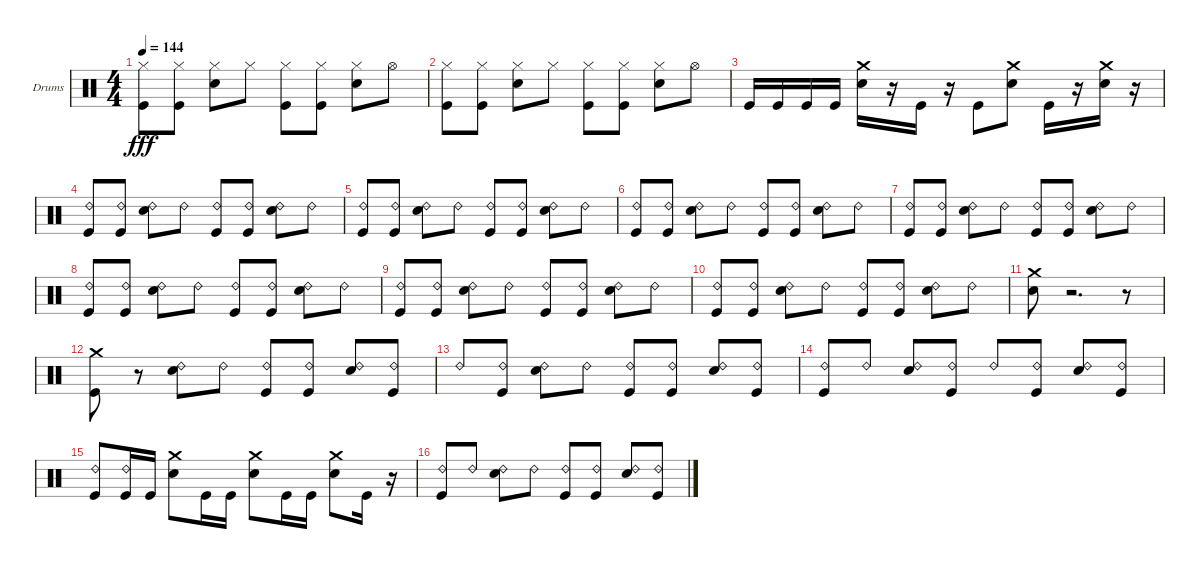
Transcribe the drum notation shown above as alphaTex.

\bracketExtendMode groupsimilarinstruments
\firstSystemTrackNameOrientation horizontal
\otherSystemsTrackNameOrientation horizontal
\track ("Drumkit" "Drums") {instrument percussion}
\staff {score}
\articulation defaults
\ts (4 4)
\tempo 144
\clef neutral
\ks c
("Kick (hit)" "Hi-Hat (closed)").8{dy fff} ("Kick (hit)" "Hi-Hat (closed)").8 ("Snare (hit) 2" "Hi-Hat (closed)").8 "Hi-Hat (closed)".8 ("Kick (hit)" "Hi-Hat (closed)").8 ("Kick (hit)" "Hi-Hat (closed)").8 ("Snare (hit) 2" "Hi-Hat (closed)").8 "Hi-Hat (open)".8 |
("Hi-Hat (closed)" "Kick (hit)").8 ("Kick (hit)" "Hi-Hat (closed)").8 ("Snare (hit) 2" "Hi-Hat (closed)").8 "Hi-Hat (closed)".8 ("Kick (hit)" "Hi-Hat (closed)").8 ("Kick (hit)" "Hi-Hat (closed)").8 ("Snare (hit) 2" "Hi-Hat (closed)").8 "Hi-Hat (open)".8 |
"Kick (hit)".16 "Kick (hit)".16 "Kick (hit)".16 "Kick (hit)".16 ("Snare (hit) 2" "Crash medium (hit)").16 r.16 "Kick (hit)".16 r.16 "Kick (hit)".8 ("Snare (hit) 2" "Crash medium (hit)").8 "Kick (hit)".16 r.16 ("Snare (hit) 2" "Crash medium (hit)").16 r.16 |
("Ride (bell) 2" "Kick (hit)").8 ("Kick (hit)" "Ride (bell) 2").8 ("Snare (hit) 2" "Ride (bell) 2").8 "Ride (bell) 2".8 ("Kick (hit)" "Ride (bell) 2").8 ("Kick (hit)" "Ride (bell) 2").8 ("Snare (hit) 2" "Ride (bell) 2").8 "Ride (bell) 2".8 |
("Ride (bell) 2" "Kick (hit)").8 ("Kick (hit)" "Ride (bell) 2").8 ("Snare (hit) 2" "Ride (bell) 2").8 "Ride (bell) 2".8 ("Kick (hit)" "Ride (bell) 2").8 ("Kick (hit)" "Ride (bell) 2").8 ("Snare (hit) 2" "Ride (bell) 2").8 "Ride (bell) 2".8 |
("Ride (bell) 2" "Kick (hit)").8 ("Kick (hit)" "Ride (bell) 2").8 ("Snare (hit) 2" "Ride (bell) 2").8 "Ride (bell) 2".8 ("Kick (hit)" "Ride (bell) 2").8 ("Kick (hit)" "Ride (bell) 2").8 ("Snare (hit) 2" "Ride (bell) 2").8 "Ride (bell) 2".8 |
("Ride (bell) 2" "Kick (hit)").8 ("Kick (hit)" "Ride (bell) 2").8 ("Snare (hit) 2" "Ride (bell) 2").8 "Ride (bell) 2".8 ("Kick (hit)" "Ride (bell) 2").8 ("Kick (hit)" "Ride (bell) 2").8 ("Snare (hit) 2" "Ride (bell) 2").8 "Ride (bell) 2".8 |
("Ride (bell) 2" "Kick (hit)").8 ("Kick (hit)" "Ride (bell) 2").8 ("Snare (hit) 2" "Ride (bell) 2").8 "Ride (bell) 2".8 ("Kick (hit)" "Ride (bell) 2").8 ("Kick (hit)" "Ride (bell) 2").8 ("Snare (hit) 2" "Ride (bell) 2").8 "Ride (bell) 2".8 |
("Kick (hit)" "Ride (bell) 2").8 ("Kick (hit)" "Ride (bell) 2").8 ("Snare (hit) 2" "Ride (bell) 2").8 "Ride (bell) 2".8 ("Kick (hit)" "Ride (bell) 2").8 ("Kick (hit)" "Ride (bell) 2").8 ("Snare (hit) 2" "Ride (bell) 2").8 "Ride (bell) 2".8 |
("Kick (hit)" "Ride (bell) 2").8 ("Kick (hit)" "Ride (bell) 2").8 ("Snare (hit) 2" "Ride (bell) 2").8 "Ride (bell) 2".8 ("Kick (hit)" "Ride (bell) 2").8 ("Kick (hit)" "Ride (bell) 2").8 ("Snare (hit) 2" "Ride (bell) 2").8 "Ride (bell) 2".8 |
("Snare (hit) 2" "Crash medium (hit)").8 r.2{d} r.8 |
("Kick (hit)" "Crash medium (hit)").8 r.8 ("Ride (bell) 2" "Snare (hit) 2").8 "Ride (bell) 2".8 ("Ride (bell) 2" "Kick (hit)").8 ("Ride (bell) 2" "Kick (hit)").8 ("Ride (bell) 2" "Snare (hit) 2").8 ("Ride (bell) 2" "Kick (hit)").8 |
"Ride (bell) 2".8 ("Ride (bell) 2" "Kick (hit)").8 ("Ride (bell) 2" "Snare (hit) 2").8 "Ride (bell) 2".8 ("Ride (bell) 2" "Kick (hit)").8 ("Ride (bell) 2" "Kick (hit)").8 ("Ride (bell) 2" "Snare (hit) 2").8 ("Ride (bell) 2" "Kick (hit)").8 |
("Ride (bell) 2" "Kick (hit)").8 "Ride (bell) 2".8 ("Ride (bell) 2" "Snare (hit) 2").8 ("Ride (bell) 2" "Kick (hit)").8 "Ride (bell) 2".8 ("Ride (bell) 2" "Kick (hit)").8 ("Ride (bell) 2" "Snare (hit) 2").8 ("Ride (bell) 2" "Kick (hit)").8 |
("Ride (bell) 2" "Kick (hit)").8 ("Ride (bell) 2" "Kick (hit)").16 "Kick (hit)".16 ("Snare (hit) 2" "Crash medium (hit)").8 "Kick (hit)".16 "Kick (hit)".16 ("Snare (hit) 2" "Crash medium (hit)").8 "Kick (hit)".16 "Kick (hit)".16 ("Snare (hit) 2" "Crash medium (hit)").8 "Kick (hit)".16 r.16 |
("Ride (bell) 2" "Kick (hit)").8 "Ride (bell) 2".8 ("Ride (bell) 2" "Snare (hit) 2").8 "Ride (bell) 2".8 ("Ride (bell) 2" "Kick (hit)").8 ("Ride (bell) 2" "Kick (hit)").8 ("Ride (bell) 2" "Snare (hit) 2").8 ("Ride (bell) 2" "Kick (hit)").8
